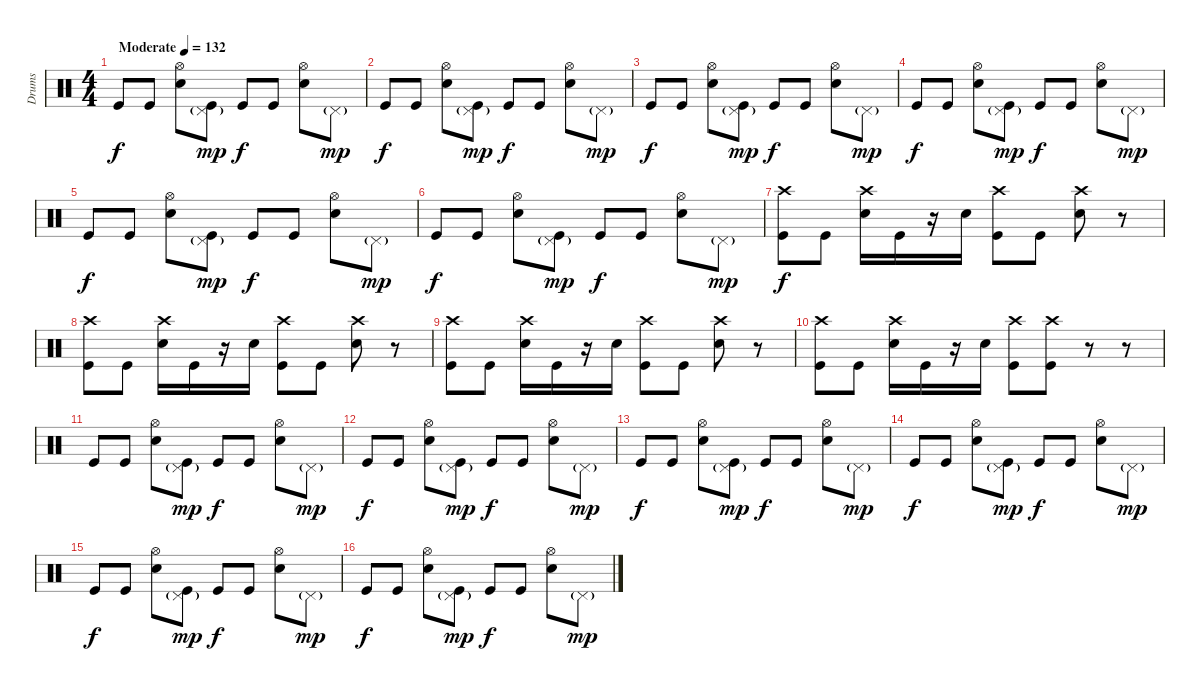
\track ("Drums" "Drums") {instrument percussion}
\staff {score}
\articulation defaults
\ts (4 4)
\tempo (132 "Moderate")
\clef neutral
\ks c "Kick (hit)".8{dy f} "Kick (hit)".8
("Hi-Hat (open)" "Snare (hit) 2").8 ("Pedal Hi-Hat (hit)"{g} "Kick (hit)").8{dy mp} "Kick (hit)".8{dy f} "Kick (hit)".8 ("Hi-Hat (open)" "Snare (hit) 2").8 "Pedal Hi-Hat (hit)"{g}.8{dy mp} |
"Kick (hit)".8{dy f} "Kick (hit)".8 ("Hi-Hat (open)" "Snare (hit) 2").8 ("Pedal Hi-Hat (hit)"{g} "Kick (hit)").8{dy mp} "Kick (hit)".8{dy f} "Kick (hit)".8 ("Hi-Hat (open)" "Snare (hit) 2").8 "Pedal Hi-Hat (hit)"{g}.8{dy mp} |
"Kick (hit)".8{dy f} "Kick (hit)".8 ("Hi-Hat (open)" "Snare (hit) 2").8 ("Pedal Hi-Hat (hit)"{g} "Kick (hit)").8{dy mp} "Kick (hit)".8{dy f} "Kick (hit)".8 ("Hi-Hat (open)" "Snare (hit) 2").8 "Pedal Hi-Hat (hit)"{g}.8{dy mp} |
"Kick (hit)".8{dy f} "Kick (hit)".8 ("Hi-Hat (open)" "Snare (hit) 2").8 ("Pedal Hi-Hat (hit)"{g} "Kick (hit)").8{dy mp} "Kick (hit)".8{dy f} "Kick (hit)".8 ("Hi-Hat (open)" "Snare (hit) 2").8 "Pedal Hi-Hat (hit)"{g}.8{dy mp} |
"Kick (hit)".8{dy f} "Kick (hit)".8 ("Hi-Hat (open)" "Snare (hit) 2").8 ("Pedal Hi-Hat (hit)"{g} "Kick (hit)").8{dy mp} "Kick (hit)".8{dy f} "Kick (hit)".8 ("Hi-Hat (open)" "Snare (hit) 2").8 "Pedal Hi-Hat (hit)"{g}.8{dy mp} |
"Kick (hit)".8{dy f} "Kick (hit)".8 ("Hi-Hat (open)" "Snare (hit) 2").8 ("Pedal Hi-Hat (hit)"{g} "Kick (hit)").8{dy mp} "Kick (hit)".8{dy f} "Kick (hit)".8 ("Hi-Hat (open)" "Snare (hit) 2").8 "Pedal Hi-Hat (hit)"{g}.8{dy mp} |
("Crash high (hit)" "Kick (hit)").8{dy f} "Kick (hit)".8 ("Crash high (hit)" "Snare (hit) 2").16 "Kick (hit)".16 r.16 "Snare (hit) 2".16 ("Crash high (hit)" "Kick (hit)").8 "Kick (hit)".8 ("Crash high (hit)" "Snare (hit) 2").8 r.8 |
("Crash high (hit)" "Kick (hit)").8 "Kick (hit)".8 ("Crash high (hit)" "Snare (hit) 2").16 "Kick (hit)".16 r.16 "Snare (hit) 2".16 ("Crash high (hit)" "Kick (hit)").8 "Kick (hit)".8 ("Crash high (hit)" "Snare (hit) 2").8 r.8 |
("Crash high (hit)" "Kick (hit)").8 "Kick (hit)".8 ("Crash high (hit)" "Snare (hit) 2").16 "Kick (hit)".16 r.16 "Snare (hit) 2".16 ("Crash high (hit)" "Kick (hit)").8 "Kick (hit)".8 ("Crash high (hit)" "Snare (hit) 2").8 r.8 |
("Crash high (hit)" "Kick (hit)").8 "Kick (hit)".8 ("Crash high (hit)" "Snare (hit) 2").16 "Kick (hit)".16 r.16 "Snare (hit) 2".16 ("Crash high (hit)" "Kick (hit)").8 ("Crash high (hit)" "Kick (hit)").8 r.8 r.8 |
"Kick (hit)".8 "Kick (hit)".8 ("Hi-Hat (open)" "Snare (hit) 2").8 ("Pedal Hi-Hat (hit)"{g} "Kick (hit)").8{dy mp} "Kick (hit)".8{dy f} "Kick (hit)".8 ("Hi-Hat (open)" "Snare (hit) 2").8 "Pedal Hi-Hat (hit)"{g}.8{dy mp} |
"Kick (hit)".8{dy f} "Kick (hit)".8 ("Hi-Hat (open)" "Snare (hit) 2").8 ("Pedal Hi-Hat (hit)"{g} "Kick (hit)").8{dy mp} "Kick (hit)".8{dy f} "Kick (hit)".8 ("Hi-Hat (open)" "Snare (hit) 2").8 "Pedal Hi-Hat (hit)"{g}.8{dy mp} |
"Kick (hit)".8{dy f} "Kick (hit)".8 ("Hi-Hat (open)" "Snare (hit) 2").8 ("Pedal Hi-Hat (hit)"{g} "Kick (hit)").8{dy mp} "Kick (hit)".8{dy f} "Kick (hit)".8 ("Hi-Hat (open)" "Snare (hit) 2").8 "Pedal Hi-Hat (hit)"{g}.8{dy mp} |
"Kick (hit)".8{dy f} "Kick (hit)".8 ("Hi-Hat (open)" "Snare (hit) 2").8 ("Pedal Hi-Hat (hit)"{g} "Kick (hit)").8{dy mp} "Kick (hit)".8{dy f} "Kick (hit)".8 ("Hi-Hat (open)" "Snare (hit) 2").8 "Pedal Hi-Hat (hit)"{g}.8{dy mp} |
"Kick (hit)".8{dy f} "Kick (hit)".8 ("Hi-Hat (open)" "Snare (hit) 2").8 ("Pedal Hi-Hat (hit)"{g} "Kick (hit)").8{dy mp} "Kick (hit)".8{dy f} "Kick (hit)".8 ("Hi-Hat (open)" "Snare (hit) 2").8 "Pedal Hi-Hat (hit)"{g}.8{dy mp} |
"Kick (hit)".8{dy f} "Kick (hit)".8 ("Hi-Hat (open)" "Snare (hit) 2").8 ("Pedal Hi-Hat (hit)"{g} "Kick (hit)").8{dy mp} "Kick (hit)".8{dy f} "Kick (hit)".8 ("Hi-Hat (open)" "Snare (hit) 2").8 "Pedal Hi-Hat (hit)"{g}.8{dy mp}
